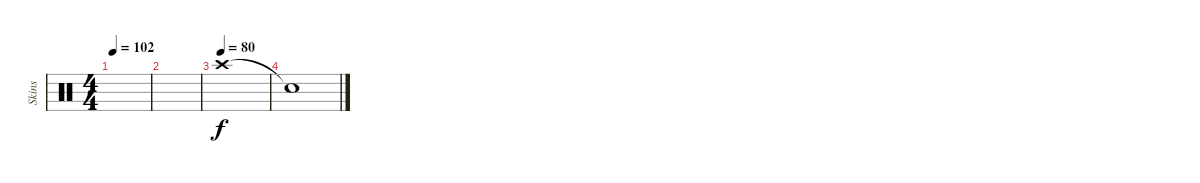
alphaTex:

\track ("Skins" "Skins") {instrument percussion}
\staff {score}
\articulation defaults
\ts (4 4)
\tempo 102
\clef neutral
\ks c
|
|
\tempo (80)
"Crash high (hit)".1{dy f} |
"Snare (hit)"{t}.1
